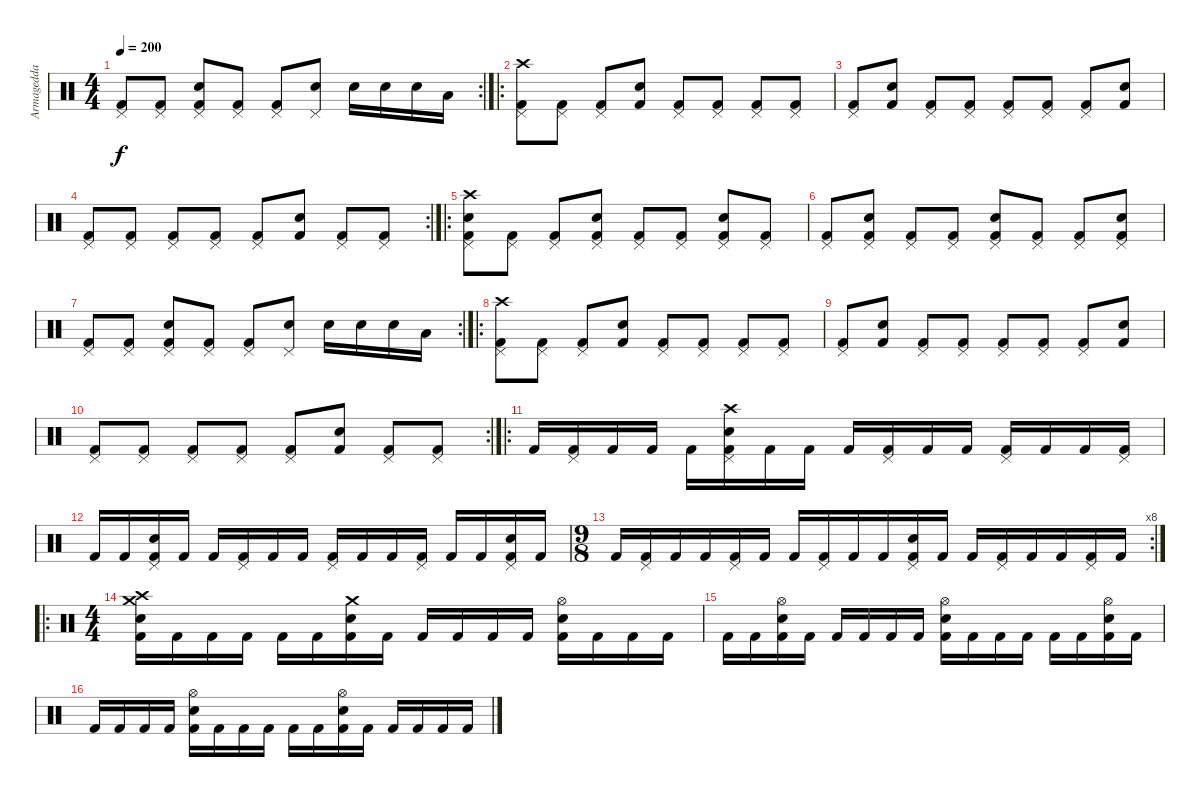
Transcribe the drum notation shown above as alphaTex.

\track ("Armagedda" "Armagedda") {instrument percussion}
\staff {score}
\articulation defaults
\rc 2
\ts (4 4)
\tempo 200
\clef neutral
\ks c
("Pedal Hi-Hat (hit)" "Kick (hit) 2").8{dy f} ("Pedal Hi-Hat (hit)" "Kick (hit) 2").8 ("Pedal Hi-Hat (hit)" "Electric Snare (hit)" "Kick (hit) 2").8 ("Pedal Hi-Hat (hit)" "Kick (hit) 2").8 ("Pedal Hi-Hat (hit)" "Kick (hit) 2").8 ("Pedal Hi-Hat (hit)" "Electric Snare (hit)").8 "Electric Snare (hit)".16 "Electric Snare (hit)".16 "Electric Snare (hit)".16 "Low Tom (hit)".16 |
\ro
("Crash high (hit)" "Pedal Hi-Hat (hit)" "Kick (hit) 2").8 ("Pedal Hi-Hat (hit)" "Kick (hit) 2").8 ("Pedal Hi-Hat (hit)" "Kick (hit) 2").8 ("Electric Snare (hit)" "Kick (hit) 2").8 ("Pedal Hi-Hat (hit)" "Kick (hit) 2").8 ("Pedal Hi-Hat (hit)" "Kick (hit) 2").8 ("Pedal Hi-Hat (hit)" "Kick (hit) 2").8 ("Pedal Hi-Hat (hit)" "Kick (hit) 2").8 |
("Pedal Hi-Hat (hit)" "Kick (hit) 2").8 ("Electric Snare (hit)" "Kick (hit) 2").8 ("Pedal Hi-Hat (hit)" "Kick (hit) 2").8 ("Pedal Hi-Hat (hit)" "Kick (hit) 2").8 ("Pedal Hi-Hat (hit)" "Kick (hit) 2").8 ("Pedal Hi-Hat (hit)" "Kick (hit) 2").8 ("Pedal Hi-Hat (hit)" "Kick (hit) 2").8 ("Electric Snare (hit)" "Kick (hit) 2").8 |
\rc 2
("Pedal Hi-Hat (hit)" "Kick (hit) 2").8 ("Pedal Hi-Hat (hit)" "Kick (hit) 2").8 ("Pedal Hi-Hat (hit)" "Kick (hit) 2").8 ("Pedal Hi-Hat (hit)" "Kick (hit) 2").8 ("Pedal Hi-Hat (hit)" "Kick (hit) 2").8 ("Electric Snare (hit)" "Kick (hit) 2").8 ("Pedal Hi-Hat (hit)" "Kick (hit) 2").8 ("Pedal Hi-Hat (hit)" "Kick (hit) 2").8 |
\ro
("Crash high (hit)" "Pedal Hi-Hat (hit)" "Electric Snare (hit)" "Kick (hit) 2").8 ("Pedal Hi-Hat (hit)" "Kick (hit) 2").8 ("Pedal Hi-Hat (hit)" "Kick (hit) 2").8 ("Pedal Hi-Hat (hit)" "Electric Snare (hit)" "Kick (hit) 2").8 ("Pedal Hi-Hat (hit)" "Kick (hit) 2").8 ("Pedal Hi-Hat (hit)" "Kick (hit) 2").8 ("Pedal Hi-Hat (hit)" "Electric Snare (hit)" "Kick (hit) 2").8 ("Pedal Hi-Hat (hit)" "Kick (hit) 2").8 |
("Pedal Hi-Hat (hit)" "Kick (hit) 2").8 ("Pedal Hi-Hat (hit)" "Electric Snare (hit)" "Kick (hit) 2").8 ("Pedal Hi-Hat (hit)" "Kick (hit) 2").8 ("Pedal Hi-Hat (hit)" "Kick (hit) 2").8 ("Pedal Hi-Hat (hit)" "Electric Snare (hit)" "Kick (hit) 2").8 ("Pedal Hi-Hat (hit)" "Kick (hit) 2").8 ("Pedal Hi-Hat (hit)" "Kick (hit) 2").8 ("Pedal Hi-Hat (hit)" "Electric Snare (hit)" "Kick (hit) 2").8 |
\rc 2
("Pedal Hi-Hat (hit)" "Kick (hit) 2").8 ("Pedal Hi-Hat (hit)" "Kick (hit) 2").8 ("Pedal Hi-Hat (hit)" "Electric Snare (hit)" "Kick (hit) 2").8 ("Pedal Hi-Hat (hit)" "Kick (hit) 2").8 ("Pedal Hi-Hat (hit)" "Kick (hit) 2").8 ("Pedal Hi-Hat (hit)" "Electric Snare (hit)").8 "Electric Snare (hit)".16 "Electric Snare (hit)".16 "Electric Snare (hit)".16 "Low Tom (hit)".16 |
\ro
("Crash high (hit)" "Pedal Hi-Hat (hit)" "Kick (hit) 2").8 ("Pedal Hi-Hat (hit)" "Kick (hit) 2").8 ("Pedal Hi-Hat (hit)" "Kick (hit) 2").8 ("Electric Snare (hit)" "Kick (hit) 2").8 ("Pedal Hi-Hat (hit)" "Kick (hit) 2").8 ("Pedal Hi-Hat (hit)" "Kick (hit) 2").8 ("Pedal Hi-Hat (hit)" "Kick (hit) 2").8 ("Pedal Hi-Hat (hit)" "Kick (hit) 2").8 |
("Pedal Hi-Hat (hit)" "Kick (hit) 2").8 ("Electric Snare (hit)" "Kick (hit) 2").8 ("Pedal Hi-Hat (hit)" "Kick (hit) 2").8 ("Pedal Hi-Hat (hit)" "Kick (hit) 2").8 ("Pedal Hi-Hat (hit)" "Kick (hit) 2").8 ("Pedal Hi-Hat (hit)" "Kick (hit) 2").8 ("Pedal Hi-Hat (hit)" "Kick (hit) 2").8 ("Electric Snare (hit)" "Kick (hit) 2").8 |
\rc 2
("Pedal Hi-Hat (hit)" "Kick (hit) 2").8 ("Pedal Hi-Hat (hit)" "Kick (hit) 2").8 ("Pedal Hi-Hat (hit)" "Kick (hit) 2").8 ("Pedal Hi-Hat (hit)" "Kick (hit) 2").8 ("Pedal Hi-Hat (hit)" "Kick (hit) 2").8 ("Electric Snare (hit)" "Kick (hit) 2").8 ("Pedal Hi-Hat (hit)" "Kick (hit) 2").8 ("Pedal Hi-Hat (hit)" "Kick (hit) 2").8 |
\ro "Kick (hit) 2".16
("Pedal Hi-Hat (hit)" "Kick (hit) 2").16 "Kick (hit) 2".16 "Kick (hit) 2".16 "Kick (hit) 2".16 ("Crash high (hit)" "Pedal Hi-Hat (hit)" "Electric Snare (hit)" "Kick (hit) 2").16 "Kick (hit) 2".16 "Kick (hit) 2".16 "Kick (hit) 2".16 ("Pedal Hi-Hat (hit)" "Kick (hit) 2").16 "Kick (hit) 2".16 "Kick (hit) 2".16 ("Pedal Hi-Hat (hit)" "Kick (hit) 2").16 "Kick (hit) 2".16 "Kick (hit) 2".16 ("Pedal Hi-Hat (hit)" "Kick (hit) 2").16 |
"Kick (hit) 2".16 "Kick (hit) 2".16 ("Pedal Hi-Hat (hit)" "Electric Snare (hit)" "Kick (hit) 2").16 "Kick (hit) 2".16 "Kick (hit) 2".16 ("Pedal Hi-Hat (hit)" "Kick (hit) 2").16 "Kick (hit) 2".16 "Kick (hit) 2".16 ("Pedal Hi-Hat (hit)" "Kick (hit) 2").16 "Kick (hit) 2".16 "Kick (hit) 2".16 ("Pedal Hi-Hat (hit)" "Kick (hit) 2").16 "Kick (hit) 2".16 "Kick (hit) 2".16 ("Pedal Hi-Hat (hit)" "Electric Snare (hit)" "Kick (hit) 2").16 "Kick (hit) 2".16 |
\rc 8
\ts (9 8)
"Kick (hit) 2".16 ("Pedal Hi-Hat (hit)" "Kick (hit) 2").16 "Kick (hit) 2".16 "Kick (hit) 2".16 ("Pedal Hi-Hat (hit)" "Kick (hit) 2").16 "Kick (hit) 2".16 "Kick (hit) 2".16 ("Pedal Hi-Hat (hit)" "Kick (hit) 2").16 "Kick (hit) 2".16 "Kick (hit) 2".16 ("Pedal Hi-Hat (hit)" "Electric Snare (hit)" "Kick (hit) 2").16 "Kick (hit) 2".16 "Kick (hit) 2".16 ("Pedal Hi-Hat (hit)" "Kick (hit) 2").16 "Kick (hit) 2".16 "Kick (hit) 2".16 ("Pedal Hi-Hat (hit)" "Kick (hit) 2").16 "Kick (hit) 2".16 |
\ro
\ts (4 4)
("Crash high (hit)" "Crash medium (hit)" "Electric Snare (hit)" "Kick (hit) 2").16 "Kick (hit) 2".16 "Kick (hit) 2".16 "Kick (hit) 2".16 "Kick (hit) 2".16 "Kick (hit) 2".16 ("Crash medium (hit)" "Electric Snare (hit)" "Kick (hit) 2").16 "Kick (hit) 2".16 "Kick (hit) 2".16 "Kick (hit) 2".16 "Kick (hit) 2".16 "Kick (hit) 2".16 ("Hi-Hat (open)" "Electric Snare (hit)" "Kick (hit) 2").16 "Kick (hit) 2".16 "Kick (hit) 2".16 "Kick (hit) 2".16 |
"Kick (hit) 2".16 "Kick (hit) 2".16 ("Hi-Hat (open)" "Electric Snare (hit)" "Kick (hit) 2").16 "Kick (hit) 2".16 "Kick (hit) 2".16 "Kick (hit) 2".16 "Kick (hit) 2".16 "Kick (hit) 2".16 ("Hi-Hat (open)" "Electric Snare (hit)" "Kick (hit) 2").16 "Kick (hit) 2".16 "Kick (hit) 2".16 "Kick (hit) 2".16 "Kick (hit) 2".16 "Kick (hit) 2".16 ("Hi-Hat (open)" "Electric Snare (hit)" "Kick (hit) 2").16 "Kick (hit) 2".16 |
"Kick (hit) 2".16 "Kick (hit) 2".16 "Kick (hit) 2".16 "Kick (hit) 2".16 ("Hi-Hat (open)" "Electric Snare (hit)" "Kick (hit) 2").16 "Kick (hit) 2".16 "Kick (hit) 2".16 "Kick (hit) 2".16 "Kick (hit) 2".16 "Kick (hit) 2".16 ("Hi-Hat (open)" "Electric Snare (hit)" "Kick (hit) 2").16 "Kick (hit) 2".16 "Kick (hit) 2".16 "Kick (hit) 2".16 "Kick (hit) 2".16 "Kick (hit) 2".16
